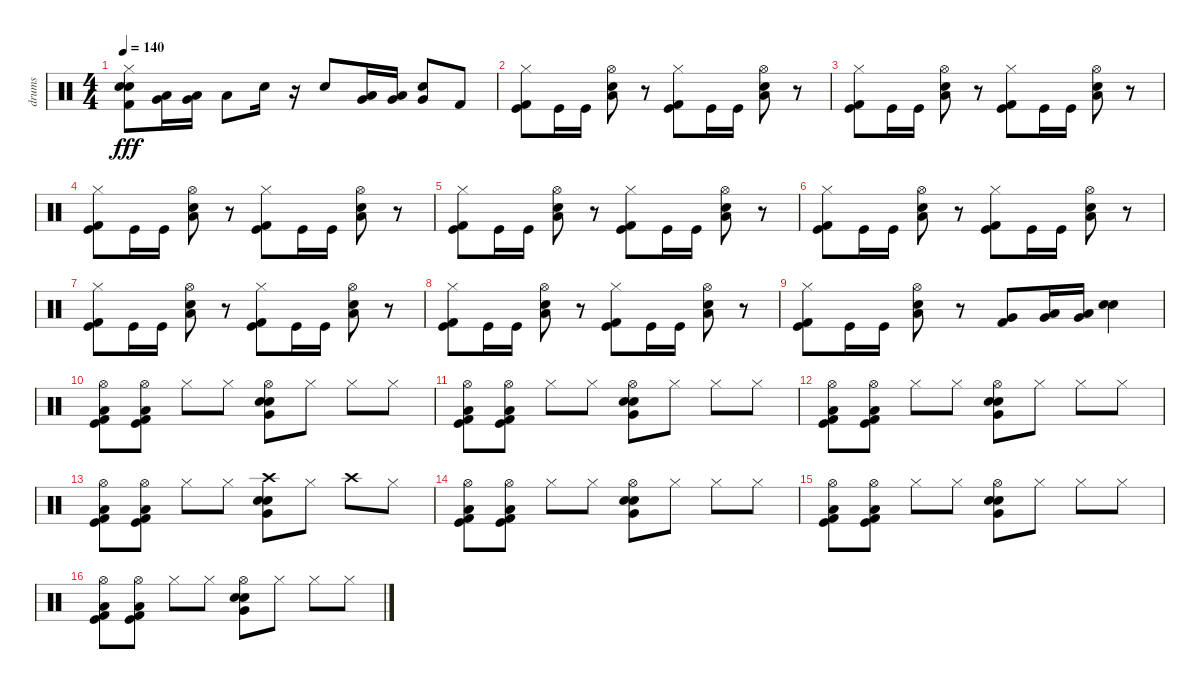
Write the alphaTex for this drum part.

\track ("drums" "drums") {instrument percussion}
\staff {score}
\articulation defaults
\ts (4 4)
\tempo 140
\clef neutral
\ks c
("Hi-Hat (closed)" "Electric Snare (hit)" "Snare (hit) 2" "Kick (hit) 2").8{dy fff} ("Low Tom (hit)" "Very Low Tom (hit)").16 ("Very Low Tom (hit)" "Low Floor Tom (hit)").16 "Low Tom (hit)".8 "Snare (hit) 2".16 r.16 "Snare (hit) 2".8 ("Low Tom (hit)" "Very Low Tom (hit)").16 ("Very Low Tom (hit)" "Low Floor Tom (hit)").16 ("Snare (hit) 2" "Very Low Tom (hit)").8 "Kick (hit) 2".8 |
("Hi-Hat (closed)" "Kick (hit)" "Kick (hit) 2").8 "Kick (hit)".16 "Kick (hit)".16 ("Hi-Hat (open)" "Low Tom (hit)" "Snare (hit) 2").8 r.8 ("Hi-Hat (closed)" "Kick (hit)" "Kick (hit) 2").8 "Kick (hit)".16 "Kick (hit)".16 ("Hi-Hat (open)" "Low Tom (hit)" "Snare (hit) 2").8 r.8 |
("Hi-Hat (closed)" "Kick (hit)" "Kick (hit) 2").8 "Kick (hit)".16 "Kick (hit)".16 ("Hi-Hat (open)" "Low Tom (hit)" "Snare (hit) 2").8 r.8 ("Hi-Hat (closed)" "Kick (hit)" "Kick (hit) 2").8 "Kick (hit)".16 "Kick (hit)".16 ("Hi-Hat (open)" "Low Tom (hit)" "Snare (hit) 2").8 r.8 |
("Hi-Hat (closed)" "Kick (hit)" "Kick (hit) 2").8 "Kick (hit)".16 "Kick (hit)".16 ("Hi-Hat (open)" "Low Tom (hit)" "Snare (hit) 2").8 r.8 ("Hi-Hat (closed)" "Kick (hit)" "Kick (hit) 2").8 "Kick (hit)".16 "Kick (hit)".16 ("Hi-Hat (open)" "Low Tom (hit)" "Snare (hit) 2").8 r.8 |
("Hi-Hat (closed)" "Kick (hit)" "Kick (hit) 2").8 "Kick (hit)".16 "Kick (hit)".16 ("Hi-Hat (open)" "Low Tom (hit)" "Snare (hit) 2").8 r.8 ("Hi-Hat (closed)" "Kick (hit)" "Kick (hit) 2").8 "Kick (hit)".16 "Kick (hit)".16 ("Hi-Hat (open)" "Low Tom (hit)" "Snare (hit) 2").8 r.8 |
("Hi-Hat (closed)" "Kick (hit)" "Kick (hit) 2").8 "Kick (hit)".16 "Kick (hit)".16 ("Hi-Hat (open)" "Low Tom (hit)" "Snare (hit) 2").8 r.8 ("Hi-Hat (closed)" "Kick (hit)" "Kick (hit) 2").8 "Kick (hit)".16 "Kick (hit)".16 ("Hi-Hat (open)" "Low Tom (hit)" "Snare (hit) 2").8 r.8 |
("Hi-Hat (closed)" "Kick (hit)" "Kick (hit) 2").8 "Kick (hit)".16 "Kick (hit)".16 ("Hi-Hat (open)" "Low Tom (hit)" "Snare (hit) 2").8 r.8 ("Hi-Hat (closed)" "Kick (hit)" "Kick (hit) 2").8 "Kick (hit)".16 "Kick (hit)".16 ("Hi-Hat (open)" "Low Tom (hit)" "Snare (hit) 2").8 r.8 |
("Hi-Hat (closed)" "Kick (hit)" "Kick (hit) 2").8 "Kick (hit)".16 "Kick (hit)".16 ("Hi-Hat (open)" "Low Tom (hit)" "Snare (hit) 2").8 r.8 ("Hi-Hat (closed)" "Kick (hit)" "Kick (hit) 2").8 "Kick (hit)".16 "Kick (hit)".16 ("Hi-Hat (open)" "Low Tom (hit)" "Snare (hit) 2").8 r.8 |
("Hi-Hat (closed)" "Kick (hit) 2" "Kick (hit)").8 "Kick (hit)".16 "Kick (hit)".16 ("Hi-Hat (open)" "Low Tom (hit)" "Snare (hit) 2").8 r.8 ("Very Low Tom (hit)" "Kick (hit) 2").8 ("Low Floor Tom (hit)" "Very Low Tom (hit)").16 ("Very Low Tom (hit)" "Low Tom (hit)").16 ("Electric Snare (hit)" "Snare (hit) 2").4 |
("Hi-Hat (open)" "Low Floor Tom (hit)" "Kick (hit)" "Kick (hit) 2").8 ("Hi-Hat (open)" "Low Floor Tom (hit)" "Kick (hit)" "Kick (hit) 2").8 "Hi-Hat (closed)".8 "Hi-Hat (closed)".8 ("Hi-Hat (open)" "Very Low Tom (hit)" "Snare (hit) 2" "Electric Snare (hit)").8 "Hi-Hat (closed)".8 "Hi-Hat (closed)".8 "Hi-Hat (closed)".8 |
("Hi-Hat (open)" "Low Floor Tom (hit)" "Kick (hit)" "Kick (hit) 2").8 ("Hi-Hat (open)" "Low Floor Tom (hit)" "Kick (hit)" "Kick (hit) 2").8 "Hi-Hat (closed)".8 "Hi-Hat (closed)".8 ("Hi-Hat (open)" "Very Low Tom (hit)" "Snare (hit) 2" "Electric Snare (hit)").8 "Hi-Hat (closed)".8 "Hi-Hat (closed)".8 "Hi-Hat (closed)".8 |
("Hi-Hat (open)" "Low Floor Tom (hit)" "Kick (hit)" "Kick (hit) 2").8 ("Hi-Hat (open)" "Low Floor Tom (hit)" "Kick (hit)" "Kick (hit) 2").8 "Hi-Hat (closed)".8 "Hi-Hat (closed)".8 ("Hi-Hat (open)" "Very Low Tom (hit)" "Snare (hit) 2" "Electric Snare (hit)").8 "Hi-Hat (closed)".8 "Hi-Hat (closed)".8 "Hi-Hat (closed)".8 |
("Hi-Hat (open)" "Low Floor Tom (hit)" "Kick (hit)" "Kick (hit) 2").8 ("Hi-Hat (open)" "Low Floor Tom (hit)" "Kick (hit)" "Kick (hit) 2").8 "Hi-Hat (closed)".8 "Hi-Hat (closed)".8 ("Crash high (hit)" "Very Low Tom (hit)" "Snare (hit) 2" "Electric Snare (hit)").8 "Hi-Hat (closed)".8 "Crash high (hit)".8 "Hi-Hat (closed)".8 |
("Hi-Hat (open)" "Low Floor Tom (hit)" "Kick (hit)" "Kick (hit) 2").8 ("Hi-Hat (open)" "Low Floor Tom (hit)" "Kick (hit)" "Kick (hit) 2").8 "Hi-Hat (closed)".8 "Hi-Hat (closed)".8 ("Hi-Hat (open)" "Very Low Tom (hit)" "Snare (hit) 2" "Electric Snare (hit)").8 "Hi-Hat (closed)".8 "Hi-Hat (closed)".8 "Hi-Hat (closed)".8 |
("Hi-Hat (open)" "Low Floor Tom (hit)" "Kick (hit)" "Kick (hit) 2").8 ("Hi-Hat (open)" "Low Floor Tom (hit)" "Kick (hit)" "Kick (hit) 2").8 "Hi-Hat (closed)".8 "Hi-Hat (closed)".8 ("Hi-Hat (open)" "Very Low Tom (hit)" "Snare (hit) 2" "Electric Snare (hit)").8 "Hi-Hat (closed)".8 "Hi-Hat (closed)".8 "Hi-Hat (closed)".8 |
("Hi-Hat (open)" "Low Floor Tom (hit)" "Kick (hit)" "Kick (hit) 2").8 ("Hi-Hat (open)" "Low Floor Tom (hit)" "Kick (hit)" "Kick (hit) 2").8 "Hi-Hat (closed)".8 "Hi-Hat (closed)".8 ("Hi-Hat (open)" "Very Low Tom (hit)" "Snare (hit) 2" "Electric Snare (hit)").8 "Hi-Hat (closed)".8 "Hi-Hat (closed)".8 "Hi-Hat (closed)".8
